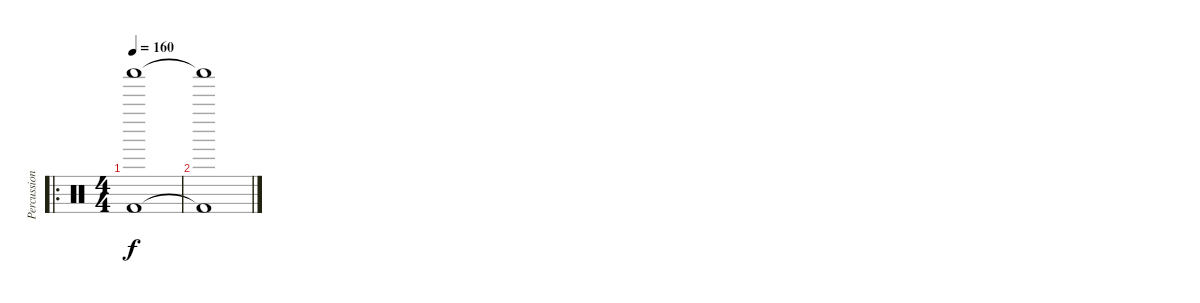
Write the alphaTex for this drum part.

\track ("Percussion" "Percussion") {instrument percussion}
\staff {score}
\articulation defaults
\ro
\ts (4 4)
\tempo 160
\clef neutral
\ks c
("Kick (hit) 2" "Shaker (hit)").1{dy f} |
("Kick (hit) 2"{t} "Shaker (hit)"{t}).1
